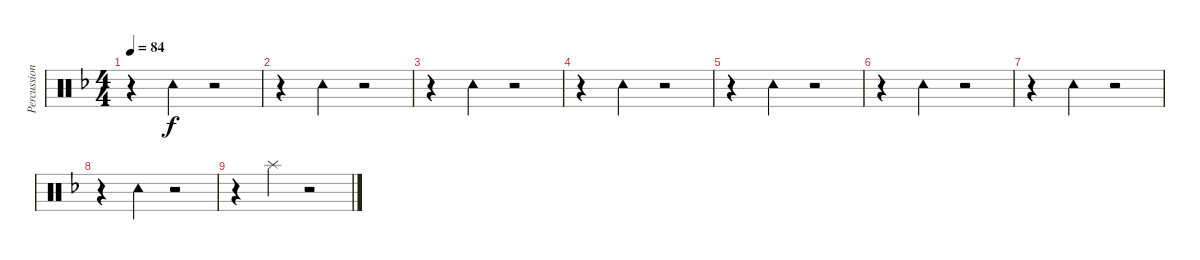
\track ("Percussion" "Percussion") {instrument percussion}
\staff {score}
\articulation defaults
\ts (4 4)
\tempo 84
\clef neutral
\ks dminor
r.4{dy f} "Tambourine (hit)".4 r.2 |
r.4 "Tambourine (hit)".4 r.2 |
r.4 "Tambourine (hit)".4 r.2 |
r.4 "Tambourine (hit)".4 r.2 |
r.4 "Tambourine (hit)".4 r.2 |
r.4 "Tambourine (hit)".4 r.2 |
r.4 "Tambourine (hit)".4 r.2 |
r.4 "Tambourine (hit)".4 r.2 |
r.4 "Splash (hit)".4 r.2
